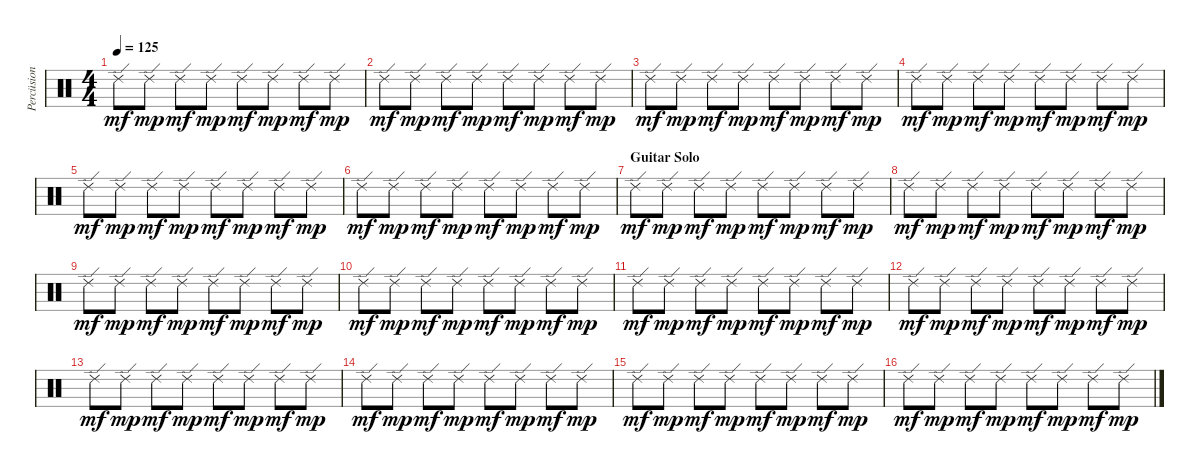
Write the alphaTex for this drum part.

\track ("Percüsion" "Percüsion") {instrument percussion}
\staff {score}
\articulation defaults
\ts (4 4)
\tempo 125
\clef neutral
\ks c "Ride (edge) 2".8{dy mf} "Ride (edge) 2".8{dy mp} "Ride (edge) 2".8{dy mf} "Ride (edge) 2".8{dy mp} "Ride (edge) 2".8{dy mf} "Ride (edge) 2".8{dy mp} "Ride (edge) 2".8{dy mf} "Ride (edge) 2".8{dy mp}
|
"Ride (edge) 2".8{dy mf} "Ride (edge) 2".8{dy mp} "Ride (edge) 2".8{dy mf} "Ride (edge) 2".8{dy mp} "Ride (edge) 2".8{dy mf} "Ride (edge) 2".8{dy mp} "Ride (edge) 2".8{dy mf} "Ride (edge) 2".8{dy mp} |
"Ride (edge) 2".8{dy mf} "Ride (edge) 2".8{dy mp} "Ride (edge) 2".8{dy mf} "Ride (edge) 2".8{dy mp} "Ride (edge) 2".8{dy mf} "Ride (edge) 2".8{dy mp} "Ride (edge) 2".8{dy mf} "Ride (edge) 2".8{dy mp} |
"Ride (edge) 2".8{dy mf} "Ride (edge) 2".8{dy mp} "Ride (edge) 2".8{dy mf} "Ride (edge) 2".8{dy mp} "Ride (edge) 2".8{dy mf} "Ride (edge) 2".8{dy mp} "Ride (edge) 2".8{dy mf} "Ride (edge) 2".8{dy mp} |
"Ride (edge) 2".8{dy mf} "Ride (edge) 2".8{dy mp} "Ride (edge) 2".8{dy mf} "Ride (edge) 2".8{dy mp} "Ride (edge) 2".8{dy mf} "Ride (edge) 2".8{dy mp} "Ride (edge) 2".8{dy mf} "Ride (edge) 2".8{dy mp} |
"Ride (edge) 2".8{dy mf} "Ride (edge) 2".8{dy mp} "Ride (edge) 2".8{dy mf} "Ride (edge) 2".8{dy mp} "Ride (edge) 2".8{dy mf} "Ride (edge) 2".8{dy mp} "Ride (edge) 2".8{dy mf} "Ride (edge) 2".8{dy mp} |
\section ("" "Guitar Solo")
"Ride (edge) 2".8{dy mf} "Ride (edge) 2".8{dy mp} "Ride (edge) 2".8{dy mf} "Ride (edge) 2".8{dy mp} "Ride (edge) 2".8{dy mf} "Ride (edge) 2".8{dy mp} "Ride (edge) 2".8{dy mf} "Ride (edge) 2".8{dy mp} |
"Ride (edge) 2".8{dy mf} "Ride (edge) 2".8{dy mp} "Ride (edge) 2".8{dy mf} "Ride (edge) 2".8{dy mp} "Ride (edge) 2".8{dy mf} "Ride (edge) 2".8{dy mp} "Ride (edge) 2".8{dy mf} "Ride (edge) 2".8{dy mp} |
"Ride (edge) 2".8{dy mf} "Ride (edge) 2".8{dy mp} "Ride (edge) 2".8{dy mf} "Ride (edge) 2".8{dy mp} "Ride (edge) 2".8{dy mf} "Ride (edge) 2".8{dy mp} "Ride (edge) 2".8{dy mf} "Ride (edge) 2".8{dy mp} |
"Ride (edge) 2".8{dy mf} "Ride (edge) 2".8{dy mp} "Ride (edge) 2".8{dy mf} "Ride (edge) 2".8{dy mp} "Ride (edge) 2".8{dy mf} "Ride (edge) 2".8{dy mp} "Ride (edge) 2".8{dy mf} "Ride (edge) 2".8{dy mp} |
"Ride (edge) 2".8{dy mf} "Ride (edge) 2".8{dy mp} "Ride (edge) 2".8{dy mf} "Ride (edge) 2".8{dy mp} "Ride (edge) 2".8{dy mf} "Ride (edge) 2".8{dy mp} "Ride (edge) 2".8{dy mf} "Ride (edge) 2".8{dy mp} |
"Ride (edge) 2".8{dy mf} "Ride (edge) 2".8{dy mp} "Ride (edge) 2".8{dy mf} "Ride (edge) 2".8{dy mp} "Ride (edge) 2".8{dy mf} "Ride (edge) 2".8{dy mp} "Ride (edge) 2".8{dy mf} "Ride (edge) 2".8{dy mp} |
"Ride (edge) 2".8{dy mf} "Ride (edge) 2".8{dy mp} "Ride (edge) 2".8{dy mf} "Ride (edge) 2".8{dy mp} "Ride (edge) 2".8{dy mf} "Ride (edge) 2".8{dy mp} "Ride (edge) 2".8{dy mf} "Ride (edge) 2".8{dy mp} |
"Ride (edge) 2".8{dy mf} "Ride (edge) 2".8{dy mp} "Ride (edge) 2".8{dy mf} "Ride (edge) 2".8{dy mp} "Ride (edge) 2".8{dy mf} "Ride (edge) 2".8{dy mp} "Ride (edge) 2".8{dy mf} "Ride (edge) 2".8{dy mp} |
"Ride (edge) 2".8{dy mf} "Ride (edge) 2".8{dy mp} "Ride (edge) 2".8{dy mf} "Ride (edge) 2".8{dy mp} "Ride (edge) 2".8{dy mf} "Ride (edge) 2".8{dy mp} "Ride (edge) 2".8{dy mf} "Ride (edge) 2".8{dy mp} |
"Ride (edge) 2".8{dy mf} "Ride (edge) 2".8{dy mp} "Ride (edge) 2".8{dy mf} "Ride (edge) 2".8{dy mp} "Ride (edge) 2".8{dy mf} "Ride (edge) 2".8{dy mp} "Ride (edge) 2".8{dy mf} "Ride (edge) 2".8{dy mp}
